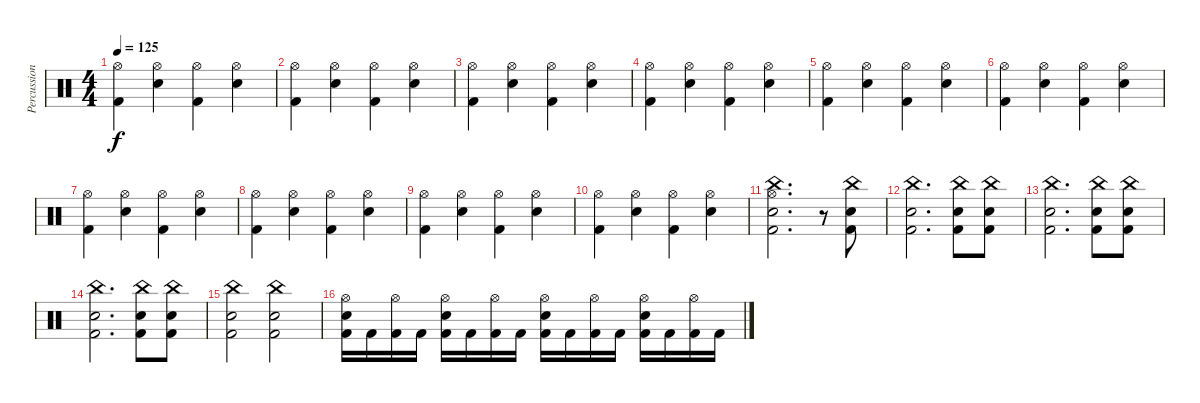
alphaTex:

\track ("Percussion" "Percussion") {instrument percussion}
\staff {score}
\articulation defaults
\ts (4 4)
\tempo 125
\clef neutral
\ks c
("Hi-Hat (open)" "Kick (hit) 2").4{dy f} ("Hi-Hat (open)" "Snare (hit) 2").4 ("Hi-Hat (open)" "Kick (hit) 2").4 ("Hi-Hat (open)" "Snare (hit) 2").4 |
("Hi-Hat (open)" "Kick (hit) 2").4 ("Hi-Hat (open)" "Snare (hit) 2").4 ("Hi-Hat (open)" "Kick (hit) 2").4 ("Hi-Hat (open)" "Snare (hit) 2").4 |
("Hi-Hat (open)" "Kick (hit) 2").4 ("Hi-Hat (open)" "Snare (hit) 2").4 ("Hi-Hat (open)" "Kick (hit) 2").4 ("Hi-Hat (open)" "Snare (hit) 2").4 |
("Hi-Hat (open)" "Kick (hit) 2").4 ("Hi-Hat (open)" "Snare (hit) 2").4 ("Hi-Hat (open)" "Kick (hit) 2").4 ("Hi-Hat (open)" "Snare (hit) 2").4 |
("Hi-Hat (open)" "Kick (hit) 2").4 ("Hi-Hat (open)" "Snare (hit) 2").4 ("Hi-Hat (open)" "Kick (hit) 2").4 ("Hi-Hat (open)" "Snare (hit) 2").4 |
("Hi-Hat (open)" "Kick (hit) 2").4 ("Hi-Hat (open)" "Snare (hit) 2").4 ("Hi-Hat (open)" "Kick (hit) 2").4 ("Hi-Hat (open)" "Snare (hit) 2").4 |
("Hi-Hat (open)" "Kick (hit) 2").4 ("Hi-Hat (open)" "Snare (hit) 2").4 ("Hi-Hat (open)" "Kick (hit) 2").4 ("Hi-Hat (open)" "Snare (hit) 2").4 |
("Hi-Hat (open)" "Kick (hit) 2").4 ("Hi-Hat (open)" "Snare (hit) 2").4 ("Hi-Hat (open)" "Kick (hit) 2").4 ("Hi-Hat (open)" "Snare (hit) 2").4 |
("Hi-Hat (open)" "Kick (hit) 2").4 ("Hi-Hat (open)" "Snare (hit) 2").4 ("Hi-Hat (open)" "Kick (hit) 2").4 ("Hi-Hat (open)" "Snare (hit) 2").4 |
("Hi-Hat (open)" "Kick (hit) 2").4 ("Hi-Hat (open)" "Snare (hit) 2").4 ("Hi-Hat (open)" "Kick (hit) 2").4 ("Hi-Hat (open)" "Snare (hit) 2").4 |
("China (hit)" "Hi-Hat (open)" "Snare (hit) 2" "Kick (hit) 2").2{d} r.8 ("China (hit)" "Snare (hit) 2" "Kick (hit) 2").8 |
("China (hit)" "Snare (hit) 2" "Kick (hit) 2").2{d} ("China (hit)" "Snare (hit) 2" "Kick (hit) 2").8 ("China (hit)" "Snare (hit) 2" "Kick (hit) 2").8 |
("China (hit)" "Snare (hit) 2" "Kick (hit) 2").2{d} ("China (hit)" "Snare (hit) 2" "Kick (hit) 2").8 ("China (hit)" "Snare (hit) 2" "Kick (hit) 2").8 |
("China (hit)" "Snare (hit) 2" "Kick (hit) 2").2{d} ("China (hit)" "Snare (hit) 2" "Kick (hit) 2").8 ("China (hit)" "Snare (hit) 2" "Kick (hit) 2").8 |
("China (hit)" "Snare (hit) 2" "Kick (hit) 2").2 ("China (hit)" "Snare (hit) 2" "Kick (hit) 2").2 |
("Hi-Hat (open)" "Snare (hit) 2" "Kick (hit) 2").16 "Kick (hit) 2".16 ("Hi-Hat (open)" "Kick (hit) 2").16 "Kick (hit) 2".16 ("Hi-Hat (open)" "Snare (hit) 2" "Kick (hit) 2").16 "Kick (hit) 2".16 ("Hi-Hat (open)" "Kick (hit) 2").16 "Kick (hit) 2".16 ("Hi-Hat (open)" "Snare (hit) 2" "Kick (hit) 2").16 "Kick (hit) 2".16 ("Hi-Hat (open)" "Kick (hit) 2").16 "Kick (hit) 2".16 ("Hi-Hat (open)" "Snare (hit) 2" "Kick (hit) 2").16 "Kick (hit) 2".16 ("Hi-Hat (open)" "Kick (hit) 2").16 "Kick (hit) 2".16
